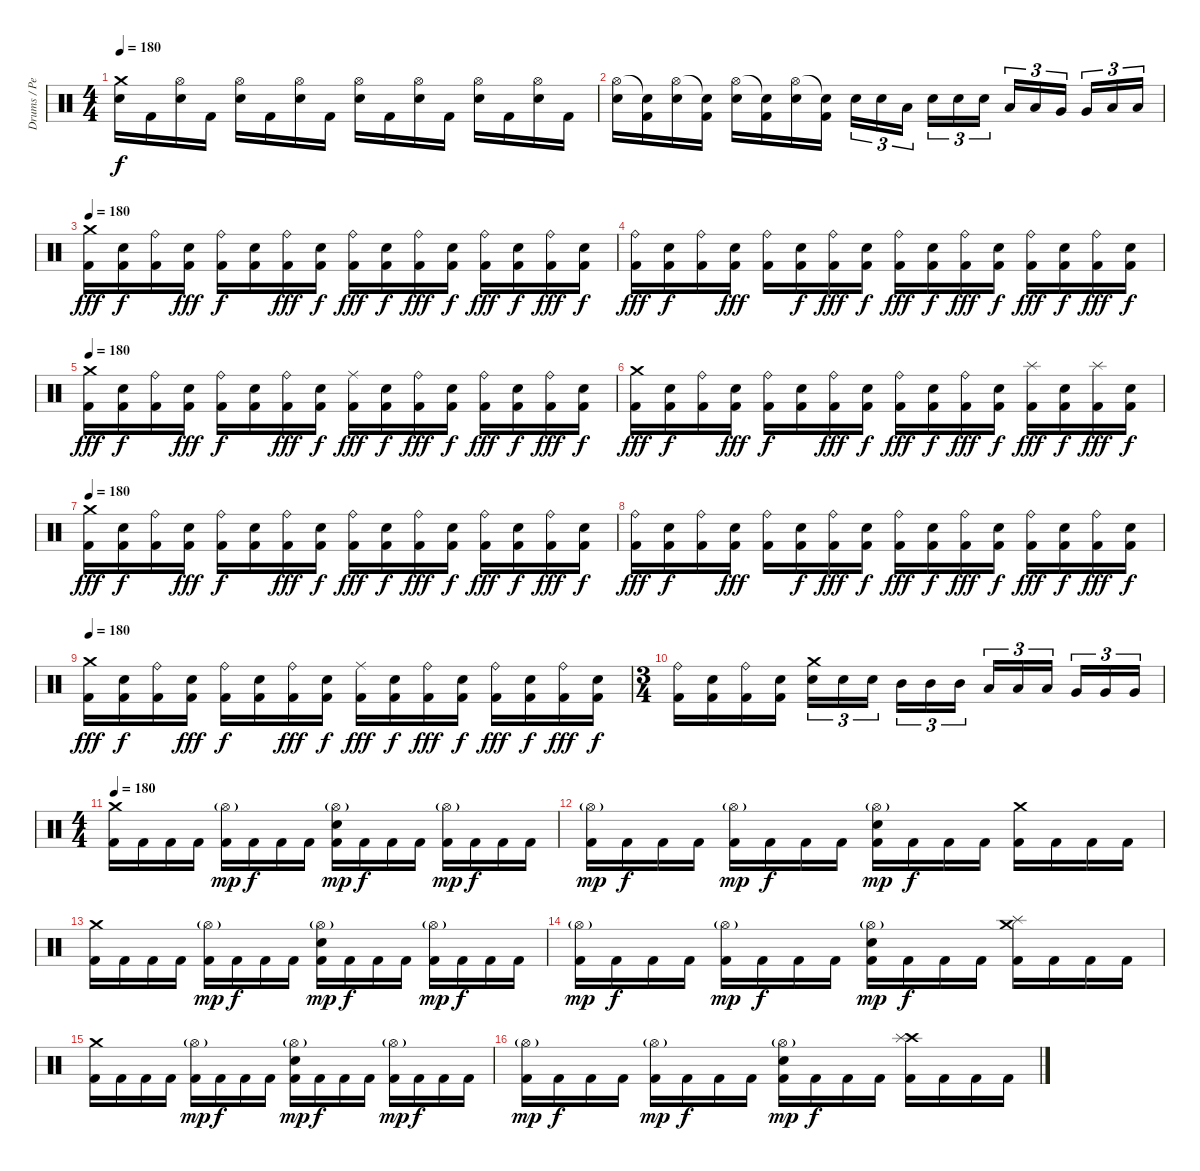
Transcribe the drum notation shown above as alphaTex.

\track ("Drums / Percussion" "Drums / Pe") {instrument percussion}
\staff {score}
\articulation defaults
\ts (4 4)
\tempo 180
\clef neutral
\ks c
("Crash medium (hit)" "Electric Snare (hit)").16{dy f} "Kick (hit) 2".16 ("Hi-Hat (open)" "Electric Snare (hit)").16 "Kick (hit) 2".16 ("Hi-Hat (open)" "Electric Snare (hit)").16 "Kick (hit) 2".16 ("Hi-Hat (open)" "Electric Snare (hit)").16 "Kick (hit) 2".16 ("Hi-Hat (open)" "Electric Snare (hit)").16 "Kick (hit) 2".16 ("Hi-Hat (open)" "Electric Snare (hit)").16 "Kick (hit) 2".16 ("Hi-Hat (open)" "Electric Snare (hit)").16 "Kick (hit) 2".16 ("Hi-Hat (open)" "Electric Snare (hit)").16 "Kick (hit) 2".16 |
("Hi-Hat (open)" "Electric Snare (hit)").16 ("Snare (hit)"{t} "Kick (hit) 2").16 ("Hi-Hat (open)" "Electric Snare (hit)").16 ("Snare (hit)"{t} "Kick (hit) 2").16 ("Hi-Hat (open)" "Electric Snare (hit)").16 ("Snare (hit)"{t} "Kick (hit) 2").16 ("Hi-Hat (open)" "Electric Snare (hit)").16 ("Snare (hit)"{t} "Kick (hit) 2").16 "Snare (hit) 2".16{tu (3 2)} "Snare (hit) 2".16{tu (3 2)} "Low Tom (hit)".16{tu (3 2)} "Snare (hit) 2".16{tu (3 2)} "Snare (hit) 2".16{tu (3 2)} "Snare (hit) 2".16{tu (3 2)} "Low Tom (hit)".16{tu (3 2)} "Low Tom (hit)".16{tu (3 2)} "Very Low Tom (hit)".16{tu (3 2)} "Very Low Tom (hit)".16{tu (3 2)} "Low Floor Tom (hit)".16{tu (3 2)} "Low Floor Tom (hit)".16{tu (3 2)} |
\tempo 180
("Crash medium (hit)" "Kick (hit) 2").16{dy fff} ("Snare (hit) 2" "Kick (hit) 2").16{dy f} ("Ride (bell)" "Kick (hit) 2").16 ("Snare (hit) 2" "Kick (hit) 2").16{dy fff} ("Ride (bell)" "Kick (hit) 2").16{dy f} ("Snare (hit) 2" "Kick (hit) 2").16 ("Ride (bell)" "Kick (hit) 2").16{dy fff} ("Snare (hit) 2" "Kick (hit) 2").16{dy f} ("Ride (bell)" "Kick (hit) 2").16{dy fff} ("Snare (hit) 2" "Kick (hit) 2").16{dy f} ("Ride (bell)" "Kick (hit) 2").16{dy fff} ("Snare (hit) 2" "Kick (hit) 2").16{dy f} ("Ride (bell)" "Kick (hit) 2").16{dy fff} ("Snare (hit) 2" "Kick (hit) 2").16{dy f} ("Ride (bell)" "Kick (hit) 2").16{dy fff} ("Snare (hit) 2" "Kick (hit) 2").16{dy f} |
("Ride (bell)" "Kick (hit) 2").16{dy fff} ("Snare (hit) 2" "Kick (hit) 2").16{dy f} ("Ride (bell)" "Kick (hit) 2").16 ("Snare (hit) 2" "Kick (hit) 2").16{dy fff} ("Ride (bell)" "Kick (hit) 2").16 ("Snare (hit) 2" "Kick (hit) 2").16{dy f} ("Ride (bell)" "Kick (hit) 2").16{dy fff} ("Snare (hit) 2" "Kick (hit) 2").16{dy f} ("Ride (bell)" "Kick (hit) 2").16{dy fff} ("Snare (hit) 2" "Kick (hit) 2").16{dy f} ("Ride (bell)" "Kick (hit) 2").16{dy fff} ("Snare (hit) 2" "Kick (hit) 2").16{dy f} ("Ride (bell)" "Kick (hit) 2").16{dy fff} ("Snare (hit) 2" "Kick (hit) 2").16{dy f} ("Ride (bell)" "Kick (hit) 2").16{dy fff} ("Snare (hit) 2" "Kick (hit) 2").16{dy f} |
\tempo 180
("Crash medium (hit)" "Kick (hit) 2").16{dy fff} ("Snare (hit) 2" "Kick (hit) 2").16{dy f} ("Ride (bell)" "Kick (hit) 2").16 ("Snare (hit) 2" "Kick (hit) 2").16{dy fff} ("Ride (bell)" "Kick (hit) 2").16{dy f} ("Snare (hit) 2" "Kick (hit) 2").16 ("Ride (bell)" "Kick (hit) 2").16{dy fff} ("Snare (hit) 2" "Kick (hit) 2").16{dy f} ("Ride (middle)" "Kick (hit) 2").16{dy fff} ("Snare (hit) 2" "Kick (hit) 2").16{dy f} ("Ride (bell)" "Kick (hit) 2").16{dy fff} ("Snare (hit) 2" "Kick (hit) 2").16{dy f} ("Ride (bell)" "Kick (hit) 2").16{dy fff} ("Snare (hit) 2" "Kick (hit) 2").16{dy f} ("Ride (bell)" "Kick (hit) 2").16{dy fff} ("Snare (hit) 2" "Kick (hit) 2").16{dy f} |
("Crash medium (hit)" "Kick (hit) 2").16{dy fff} ("Snare (hit) 2" "Kick (hit) 2").16{dy f} ("Ride (bell)" "Kick (hit) 2").16 ("Snare (hit) 2" "Kick (hit) 2").16{dy fff} ("Ride (bell)" "Kick (hit) 2").16{dy f} ("Snare (hit) 2" "Kick (hit) 2").16 ("Ride (bell)" "Kick (hit) 2").16{dy fff} ("Snare (hit) 2" "Kick (hit) 2").16{dy f} ("Ride (bell)" "Kick (hit) 2").16{dy fff} ("Snare (hit) 2" "Kick (hit) 2").16{dy f} ("Ride (bell)" "Kick (hit) 2").16{dy fff} ("Snare (hit) 2" "Kick (hit) 2").16{dy f} ("Splash (hit)" "Kick (hit) 2").16{dy fff} ("Snare (hit) 2" "Kick (hit) 2").16{dy f} ("Splash (hit)" "Kick (hit) 2").16{dy fff} ("Snare (hit) 2" "Kick (hit) 2").16{dy f} |
\tempo 180
("Crash medium (hit)" "Kick (hit) 2").16{dy fff} ("Snare (hit) 2" "Kick (hit) 2").16{dy f} ("Ride (bell)" "Kick (hit) 2").16 ("Snare (hit) 2" "Kick (hit) 2").16{dy fff} ("Ride (bell)" "Kick (hit) 2").16{dy f} ("Snare (hit) 2" "Kick (hit) 2").16 ("Ride (bell)" "Kick (hit) 2").16{dy fff} ("Snare (hit) 2" "Kick (hit) 2").16{dy f} ("Ride (bell)" "Kick (hit) 2").16{dy fff} ("Snare (hit) 2" "Kick (hit) 2").16{dy f} ("Ride (bell)" "Kick (hit) 2").16{dy fff} ("Snare (hit) 2" "Kick (hit) 2").16{dy f} ("Ride (bell)" "Kick (hit) 2").16{dy fff} ("Snare (hit) 2" "Kick (hit) 2").16{dy f} ("Ride (bell)" "Kick (hit) 2").16{dy fff} ("Snare (hit) 2" "Kick (hit) 2").16{dy f} |
("Ride (bell)" "Kick (hit) 2").16{dy fff} ("Snare (hit) 2" "Kick (hit) 2").16{dy f} ("Ride (bell)" "Kick (hit) 2").16 ("Snare (hit) 2" "Kick (hit) 2").16{dy fff} ("Ride (bell)" "Kick (hit) 2").16 ("Snare (hit) 2" "Kick (hit) 2").16{dy f} ("Ride (bell)" "Kick (hit) 2").16{dy fff} ("Snare (hit) 2" "Kick (hit) 2").16{dy f} ("Ride (bell)" "Kick (hit) 2").16{dy fff} ("Snare (hit) 2" "Kick (hit) 2").16{dy f} ("Ride (bell)" "Kick (hit) 2").16{dy fff} ("Snare (hit) 2" "Kick (hit) 2").16{dy f} ("Ride (bell)" "Kick (hit) 2").16{dy fff} ("Snare (hit) 2" "Kick (hit) 2").16{dy f} ("Ride (bell)" "Kick (hit) 2").16{dy fff} ("Snare (hit) 2" "Kick (hit) 2").16{dy f} |
\tempo 180
("Crash medium (hit)" "Kick (hit) 2").16{dy fff} ("Snare (hit) 2" "Kick (hit) 2").16{dy f} ("Ride (bell)" "Kick (hit) 2").16 ("Snare (hit) 2" "Kick (hit) 2").16{dy fff} ("Ride (bell)" "Kick (hit) 2").16{dy f} ("Snare (hit) 2" "Kick (hit) 2").16 ("Ride (bell)" "Kick (hit) 2").16{dy fff} ("Snare (hit) 2" "Kick (hit) 2").16{dy f} ("Ride (middle)" "Kick (hit) 2").16{dy fff} ("Snare (hit) 2" "Kick (hit) 2").16{dy f} ("Ride (bell)" "Kick (hit) 2").16{dy fff} ("Snare (hit) 2" "Kick (hit) 2").16{dy f} ("Ride (bell)" "Kick (hit) 2").16{dy fff} ("Snare (hit) 2" "Kick (hit) 2").16{dy f} ("Ride (bell)" "Kick (hit) 2").16{dy fff} ("Snare (hit) 2" "Kick (hit) 2").16{dy f} |
\ts (3 4)
("Ride (bell)" "Kick (hit) 2").16 ("Snare (hit) 2" "Kick (hit) 2").16 ("Ride (bell)" "Kick (hit) 2").16 ("Snare (hit) 2" "Kick (hit) 2").16 ("Crash medium (hit)" "Snare (hit) 2").16{tu (3 2)} "Snare (hit) 2".16{tu (3 2)} "Snare (hit) 2".16{tu (3 2)} "Mid Tom (hit)".16{tu (3 2)} "Mid Tom (hit)".16{tu (3 2)} "Mid Tom (hit)".16{tu (3 2)} "Low Tom (hit)".16{tu (3 2)} "Low Tom (hit)".16{tu (3 2)} "Low Tom (hit)".16{tu (3 2)} "Very Low Tom (hit)".16{tu (3 2)} "Very Low Tom (hit)".16{tu (3 2)} "Very Low Tom (hit)".16{tu (3 2)} |
\ts (4 4)
\tempo 180
("Crash medium (hit)" "Kick (hit) 2").16 "Kick (hit) 2".16 "Kick (hit) 2".16 "Kick (hit) 2".16 ("Hi-Hat (open)"{g} "Kick (hit) 2").16{dy mp} "Kick (hit) 2".16{dy f} "Kick (hit) 2".16 "Kick (hit) 2".16 ("Hi-Hat (open)"{g} "Electric Snare (hit)" "Kick (hit) 2").16{dy mp} "Kick (hit) 2".16{dy f} "Kick (hit) 2".16 "Kick (hit) 2".16 ("Hi-Hat (open)"{g} "Kick (hit) 2").16{dy mp} "Kick (hit) 2".16{dy f} "Kick (hit) 2".16 "Kick (hit) 2".16 |
("Hi-Hat (open)"{g} "Kick (hit) 2").16{dy mp} "Kick (hit) 2".16{dy f} "Kick (hit) 2".16 "Kick (hit) 2".16 ("Hi-Hat (open)"{g} "Kick (hit) 2").16{dy mp} "Kick (hit) 2".16{dy f} "Kick (hit) 2".16 "Kick (hit) 2".16 ("Hi-Hat (open)"{g} "Electric Snare (hit)" "Kick (hit) 2").16{dy mp} "Kick (hit) 2".16{dy f} "Kick (hit) 2".16 "Kick (hit) 2".16 ("Crash medium (hit)" "Kick (hit) 2").16 "Kick (hit) 2".16 "Kick (hit) 2".16 "Kick (hit) 2".16 |
("Crash medium (hit)" "Kick (hit) 2").16 "Kick (hit) 2".16 "Kick (hit) 2".16 "Kick (hit) 2".16 ("Hi-Hat (open)"{g} "Kick (hit) 2").16{dy mp} "Kick (hit) 2".16{dy f} "Kick (hit) 2".16 "Kick (hit) 2".16 ("Hi-Hat (open)"{g} "Electric Snare (hit)" "Kick (hit) 2").16{dy mp} "Kick (hit) 2".16{dy f} "Kick (hit) 2".16 "Kick (hit) 2".16 ("Hi-Hat (open)"{g} "Kick (hit) 2").16{dy mp} "Kick (hit) 2".16{dy f} "Kick (hit) 2".16 "Kick (hit) 2".16 |
("Hi-Hat (open)"{g} "Kick (hit) 2").16{dy mp} "Kick (hit) 2".16{dy f} "Kick (hit) 2".16 "Kick (hit) 2".16 ("Hi-Hat (open)"{g} "Kick (hit) 2").16{dy mp} "Kick (hit) 2".16{dy f} "Kick (hit) 2".16 "Kick (hit) 2".16 ("Hi-Hat (open)"{g} "Electric Snare (hit)" "Kick (hit) 2").16{dy mp} "Kick (hit) 2".16{dy f} "Kick (hit) 2".16 "Kick (hit) 2".16 ("Crash medium (hit)" "Splash (hit)" "Kick (hit) 2").16 "Kick (hit) 2".16 "Kick (hit) 2".16 "Kick (hit) 2".16 |
("Crash medium (hit)" "Kick (hit) 2").16 "Kick (hit) 2".16 "Kick (hit) 2".16 "Kick (hit) 2".16 ("Hi-Hat (open)"{g} "Kick (hit) 2").16{dy mp} "Kick (hit) 2".16{dy f} "Kick (hit) 2".16 "Kick (hit) 2".16 ("Hi-Hat (open)"{g} "Electric Snare (hit)" "Kick (hit) 2").16{dy mp} "Kick (hit) 2".16{dy f} "Kick (hit) 2".16 "Kick (hit) 2".16 ("Hi-Hat (open)"{g} "Kick (hit) 2").16{dy mp} "Kick (hit) 2".16{dy f} "Kick (hit) 2".16 "Kick (hit) 2".16 |
("Hi-Hat (open)"{g} "Kick (hit) 2").16{dy mp} "Kick (hit) 2".16{dy f} "Kick (hit) 2".16 "Kick (hit) 2".16 ("Hi-Hat (open)"{g} "Kick (hit) 2").16{dy mp} "Kick (hit) 2".16{dy f} "Kick (hit) 2".16 "Kick (hit) 2".16 ("Hi-Hat (open)"{g} "Electric Snare (hit)" "Kick (hit) 2").16{dy mp} "Kick (hit) 2".16{dy f} "Kick (hit) 2".16 "Kick (hit) 2".16 ("Crash high (hit)" "Splash (hit)" "Kick (hit) 2").16 "Kick (hit) 2".16 "Kick (hit) 2".16 "Kick (hit) 2".16
